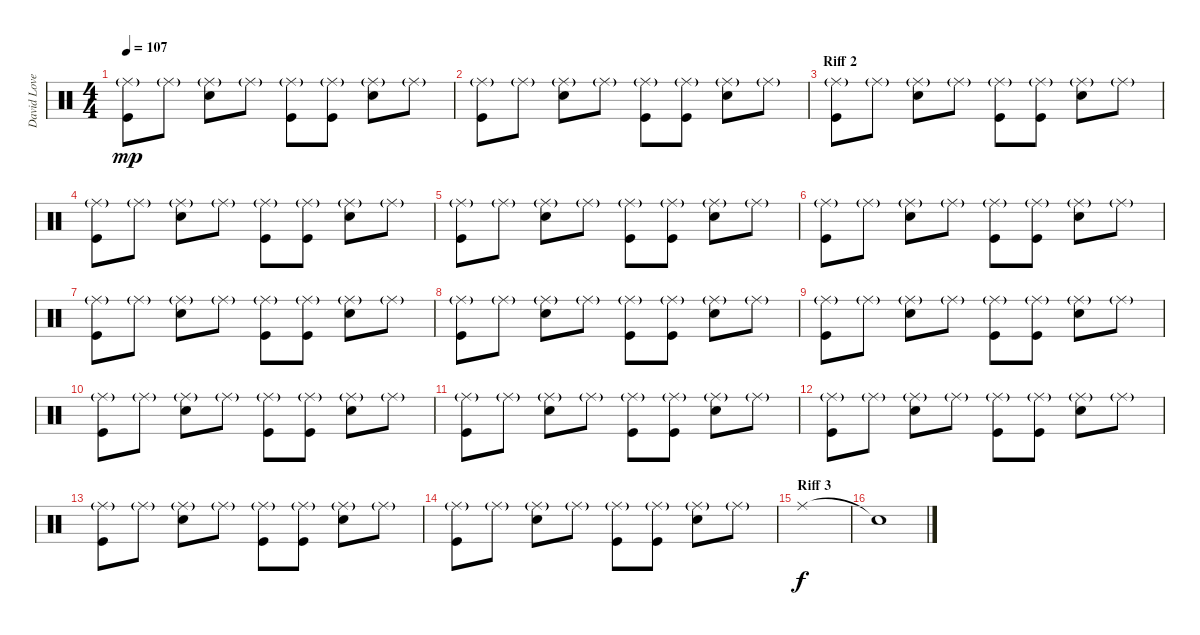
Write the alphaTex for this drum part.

\track ("David Lovering" "David Love") {instrument percussion}
\staff {score}
\articulation defaults
\ts (4 4)
\tempo 107
\clef neutral
\ks c
("Ride (middle)"{g} "Kick (hit)").8{dy mp} "Ride (middle)"{g}.8 ("Ride (middle)"{g} "Snare (hit) 2").8 "Ride (middle)"{g}.8 ("Ride (middle)"{g} "Kick (hit)").8 ("Ride (middle)"{g} "Kick (hit)").8 ("Ride (middle)"{g} "Snare (hit) 2").8 "Ride (middle)"{g}.8 |
("Ride (middle)"{g} "Kick (hit)").8 "Ride (middle)"{g}.8 ("Ride (middle)"{g} "Snare (hit) 2").8 "Ride (middle)"{g}.8 ("Ride (middle)"{g} "Kick (hit)").8 ("Ride (middle)"{g} "Kick (hit)").8 ("Ride (middle)"{g} "Snare (hit) 2").8 "Ride (middle)"{g}.8 |
\section ("" "Riff 2")
("Ride (middle)"{g} "Kick (hit)").8 "Ride (middle)"{g}.8 ("Ride (middle)"{g} "Snare (hit) 2").8 "Ride (middle)"{g}.8 ("Ride (middle)"{g} "Kick (hit)").8 ("Ride (middle)"{g} "Kick (hit)").8 ("Ride (middle)"{g} "Snare (hit) 2").8 "Ride (middle)"{g}.8 |
("Ride (middle)"{g} "Kick (hit)").8 "Ride (middle)"{g}.8 ("Ride (middle)"{g} "Snare (hit) 2").8 "Ride (middle)"{g}.8 ("Ride (middle)"{g} "Kick (hit)").8 ("Ride (middle)"{g} "Kick (hit)").8 ("Ride (middle)"{g} "Snare (hit) 2").8 "Ride (middle)"{g}.8 |
("Ride (middle)"{g} "Kick (hit)").8 "Ride (middle)"{g}.8 ("Ride (middle)"{g} "Snare (hit) 2").8 "Ride (middle)"{g}.8 ("Ride (middle)"{g} "Kick (hit)").8 ("Ride (middle)"{g} "Kick (hit)").8 ("Ride (middle)"{g} "Snare (hit) 2").8 "Ride (middle)"{g}.8 |
("Ride (middle)"{g} "Kick (hit)").8 "Ride (middle)"{g}.8 ("Ride (middle)"{g} "Snare (hit) 2").8 "Ride (middle)"{g}.8 ("Ride (middle)"{g} "Kick (hit)").8 ("Ride (middle)"{g} "Kick (hit)").8 ("Ride (middle)"{g} "Snare (hit) 2").8 "Ride (middle)"{g}.8 |
("Ride (middle)"{g} "Kick (hit)").8 "Ride (middle)"{g}.8 ("Ride (middle)"{g} "Snare (hit) 2").8 "Ride (middle)"{g}.8 ("Ride (middle)"{g} "Kick (hit)").8 ("Ride (middle)"{g} "Kick (hit)").8 ("Ride (middle)"{g} "Snare (hit) 2").8 "Ride (middle)"{g}.8 |
("Ride (middle)"{g} "Kick (hit)").8 "Ride (middle)"{g}.8 ("Ride (middle)"{g} "Snare (hit) 2").8 "Ride (middle)"{g}.8 ("Ride (middle)"{g} "Kick (hit)").8 ("Ride (middle)"{g} "Kick (hit)").8 ("Ride (middle)"{g} "Snare (hit) 2").8 "Ride (middle)"{g}.8 |
("Ride (middle)"{g} "Kick (hit)").8 "Ride (middle)"{g}.8 ("Ride (middle)"{g} "Snare (hit) 2").8 "Ride (middle)"{g}.8 ("Ride (middle)"{g} "Kick (hit)").8 ("Ride (middle)"{g} "Kick (hit)").8 ("Ride (middle)"{g} "Snare (hit) 2").8 "Ride (middle)"{g}.8 |
("Ride (middle)"{g} "Kick (hit)").8 "Ride (middle)"{g}.8 ("Ride (middle)"{g} "Snare (hit) 2").8 "Ride (middle)"{g}.8 ("Ride (middle)"{g} "Kick (hit)").8 ("Ride (middle)"{g} "Kick (hit)").8 ("Ride (middle)"{g} "Snare (hit) 2").8 "Ride (middle)"{g}.8 |
("Ride (middle)"{g} "Kick (hit)").8 "Ride (middle)"{g}.8 ("Ride (middle)"{g} "Snare (hit) 2").8 "Ride (middle)"{g}.8 ("Ride (middle)"{g} "Kick (hit)").8 ("Ride (middle)"{g} "Kick (hit)").8 ("Ride (middle)"{g} "Snare (hit) 2").8 "Ride (middle)"{g}.8 |
("Ride (middle)"{g} "Kick (hit)").8 "Ride (middle)"{g}.8 ("Ride (middle)"{g} "Snare (hit) 2").8 "Ride (middle)"{g}.8 ("Ride (middle)"{g} "Kick (hit)").8 ("Ride (middle)"{g} "Kick (hit)").8 ("Ride (middle)"{g} "Snare (hit) 2").8 "Ride (middle)"{g}.8 |
("Ride (middle)"{g} "Kick (hit)").8 "Ride (middle)"{g}.8 ("Ride (middle)"{g} "Snare (hit) 2").8 "Ride (middle)"{g}.8 ("Ride (middle)"{g} "Kick (hit)").8 ("Ride (middle)"{g} "Kick (hit)").8 ("Ride (middle)"{g} "Snare (hit) 2").8 "Ride (middle)"{g}.8 |
("Ride (middle)"{g} "Kick (hit)").8 "Ride (middle)"{g}.8 ("Ride (middle)"{g} "Snare (hit) 2").8 "Ride (middle)"{g}.8 ("Ride (middle)"{g} "Kick (hit)").8 ("Ride (middle)"{g} "Kick (hit)").8 ("Ride (middle)"{g} "Snare (hit) 2").8 "Ride (middle)"{g}.8 |
\section ("" "Riff 3")
"Ride (middle)".1{dy f} |
"Snare (hit)"{t}.1
